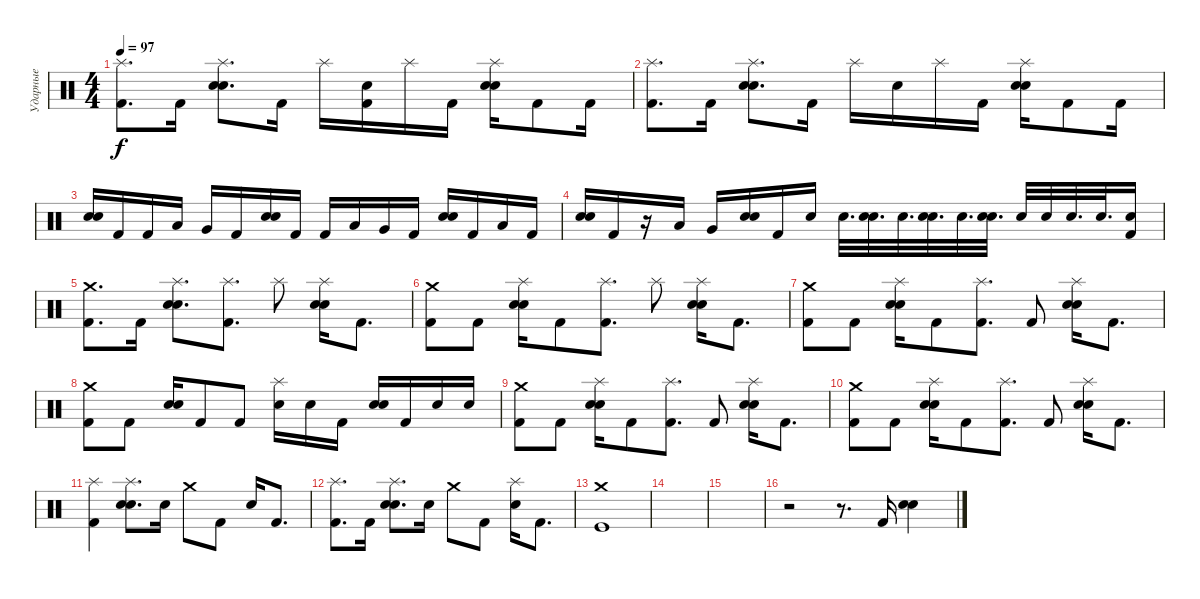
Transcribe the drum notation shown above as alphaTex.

\track ("Ударные" "Ударные") {instrument percussion}
\staff {score}
\articulation defaults
\ts (4 4)
\tempo 97
\clef neutral
\ks c
("Splash (hit)" "Kick (hit) 2").8{d dy f} "Kick (hit) 2".16 ("Splash (hit)" "Electric Snare (hit)" "Snare (hit) 2").8{d} "Kick (hit) 2".16 "Splash (hit)".16 ("Electric Snare (hit)" "Kick (hit) 2").16 "Splash (hit)".16 "Kick (hit) 2".16 ("Splash (hit)" "Electric Snare (hit)" "Snare (hit) 2").16 "Kick (hit) 2".8 "Kick (hit) 2".16 |
("Splash (hit)" "Kick (hit) 2").8{d} "Kick (hit) 2".16 ("Splash (hit)" "Electric Snare (hit)" "Snare (hit) 2").8{d} "Kick (hit) 2".16 "Splash (hit)".16 "Electric Snare (hit)".16 "Splash (hit)".16 "Kick (hit) 2".16 ("Splash (hit)" "Electric Snare (hit)" "Snare (hit) 2").16 "Kick (hit) 2".8 "Kick (hit) 2".16 |
("Electric Snare (hit)" "Snare (hit) 2").16 "Kick (hit) 2".16 "Kick (hit) 2".16 "Low Tom (hit)".16 "Very Low Tom (hit)".16 "Kick (hit) 2".16 ("Electric Snare (hit)" "Snare (hit) 2").16 "Kick (hit) 2".16 "Kick (hit) 2".16 "Low Tom (hit)".16 "Very Low Tom (hit)".16 "Kick (hit) 2".16 ("Electric Snare (hit)" "Snare (hit) 2").16 "Kick (hit) 2".16 "Low Tom (hit)".16 "Kick (hit) 2".16 |
("Electric Snare (hit)" "Snare (hit) 2").16 "Kick (hit) 2".16 r.16 "Low Tom (hit)".16 "Very Low Tom (hit)".16 ("Electric Snare (hit)" "Snare (hit) 2").16 "Kick (hit) 2".16 "Electric Snare (hit)".16 "Electric Snare (hit)".32{d} ("Electric Snare (hit)" "Snare (hit) 2").32{d} "Electric Snare (hit)".32{d} ("Electric Snare (hit)" "Snare (hit) 2").32{d} "Electric Snare (hit)".32{d} ("Electric Snare (hit)" "Snare (hit) 2").32{d} "Electric Snare (hit)".32 "Electric Snare (hit)".32 "Electric Snare (hit)".32{d} "Electric Snare (hit)".32{d} ("Electric Snare (hit)" "Kick (hit) 2").16 |
("Crash medium (hit)" "Kick (hit) 2").8{d} "Kick (hit) 2".16 ("Splash (hit)" "Electric Snare (hit)" "Snare (hit) 2").8{d} ("Splash (hit)" "Kick (hit) 2").8{d} "Splash (hit)".8 ("Splash (hit)" "Electric Snare (hit)" "Snare (hit) 2").16 "Kick (hit) 2".8{d} |
("Crash medium (hit)" "Kick (hit) 2").8 "Kick (hit) 2".8 ("Splash (hit)" "Electric Snare (hit)" "Snare (hit) 2").16 "Kick (hit) 2".8 ("Splash (hit)" "Kick (hit) 2").8{d} "Splash (hit)".8 ("Splash (hit)" "Electric Snare (hit)" "Snare (hit) 2").16 "Kick (hit) 2".8{d} |
("Crash medium (hit)" "Kick (hit) 2").8 "Kick (hit) 2".8 ("Splash (hit)" "Electric Snare (hit)" "Snare (hit) 2").16 "Kick (hit) 2".8 ("Splash (hit)" "Kick (hit) 2").8{d} "Kick (hit) 2".8 ("Splash (hit)" "Electric Snare (hit)" "Snare (hit) 2").16 "Kick (hit) 2".8{d} |
("Crash medium (hit)" "Kick (hit) 2").8 "Kick (hit) 2".8 ("Electric Snare (hit)" "Snare (hit) 2").16 "Kick (hit) 2".8 "Kick (hit) 2".8 ("Splash (hit)" "Electric Snare (hit)").16 "Electric Snare (hit)".16 "Kick (hit) 2".16 ("Electric Snare (hit)" "Snare (hit) 2").16 "Kick (hit) 2".16 "Electric Snare (hit)".16 "Electric Snare (hit)".16 |
("Crash medium (hit)" "Kick (hit) 2").8 "Kick (hit) 2".8 ("Splash (hit)" "Electric Snare (hit)" "Snare (hit) 2").16 "Kick (hit) 2".8 ("Splash (hit)" "Kick (hit) 2").8{d} "Kick (hit) 2".8 ("Splash (hit)" "Electric Snare (hit)" "Snare (hit) 2").16 "Kick (hit) 2".8{d} |
("Crash medium (hit)" "Kick (hit) 2").8 "Kick (hit) 2".8 ("Splash (hit)" "Electric Snare (hit)" "Snare (hit) 2").16 "Kick (hit) 2".8 ("Splash (hit)" "Kick (hit) 2").8{d} "Kick (hit) 2".8 ("Splash (hit)" "Electric Snare (hit)" "Snare (hit) 2").16 "Kick (hit) 2".8{d} |
("Splash (hit)" "Kick (hit) 2").4 ("Splash (hit)" "Electric Snare (hit)" "Snare (hit) 2").8{d} "Electric Snare (hit)".16 "Crash medium (hit)".8 "Kick (hit) 2".8 "Electric Snare (hit)".16 "Kick (hit) 2".8{d} |
("Splash (hit)" "Kick (hit) 2").8{d} "Kick (hit) 2".16 ("Splash (hit)" "Electric Snare (hit)" "Snare (hit) 2").8{d} "Electric Snare (hit)".16 "Crash medium (hit)".8 "Kick (hit) 2".8 ("Splash (hit)" "Electric Snare (hit)").16 "Kick (hit) 2".8{d} |
("Crash medium (hit)" "Kick (hit)").1 |
|
|
r.2 r.8{d} "Kick (hit) 2".16 ("Electric Snare (hit)" "Snare (hit) 2").4
